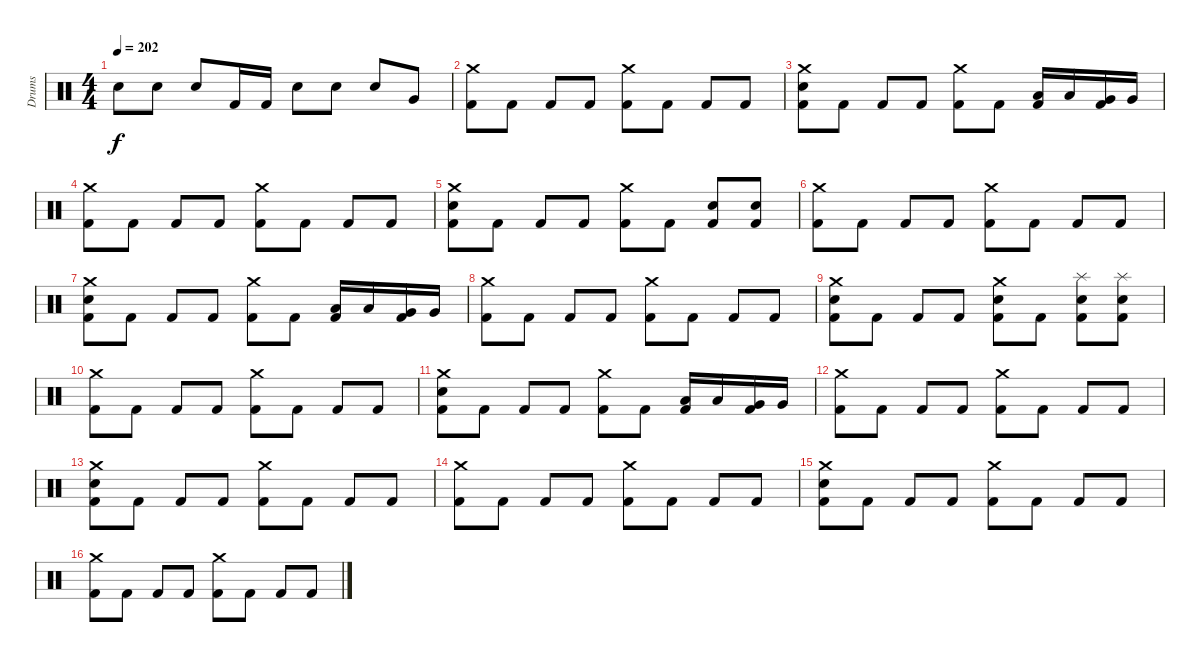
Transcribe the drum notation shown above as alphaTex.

\track ("Drums" "Drums") {instrument percussion}
\staff {score}
\articulation defaults
\ts (4 4)
\tempo 202
\clef neutral
\ks c "Electric Snare (hit)".8{dy f} "Electric Snare (hit)".8 "Electric Snare (hit)".8 "Kick (hit) 2".16 "Kick (hit) 2".16 "Electric Snare (hit)".8 "Electric Snare (hit)".8 "Electric Snare (hit)".8 "Very Low Tom (hit)".8
|
("Crash medium (hit)" "Kick (hit) 2").8 "Kick (hit) 2".8 "Kick (hit) 2".8 "Kick (hit) 2".8 ("Crash medium (hit)" "Kick (hit) 2").8 "Kick (hit) 2".8 "Kick (hit) 2".8 "Kick (hit) 2".8 |
("Crash medium (hit)" "Electric Snare (hit)" "Kick (hit) 2").8 "Kick (hit) 2".8 "Kick (hit) 2".8 "Kick (hit) 2".8 ("Crash medium (hit)" "Kick (hit) 2").8 "Kick (hit) 2".8 ("Low Tom (hit)" "Kick (hit) 2").16 "Low Tom (hit)".16 ("Very Low Tom (hit)" "Kick (hit) 2").16 "Very Low Tom (hit)".16 |
("Crash medium (hit)" "Kick (hit) 2").8 "Kick (hit) 2".8 "Kick (hit) 2".8 "Kick (hit) 2".8 ("Crash medium (hit)" "Kick (hit) 2").8 "Kick (hit) 2".8 "Kick (hit) 2".8 "Kick (hit) 2".8 |
("Crash medium (hit)" "Electric Snare (hit)" "Kick (hit) 2").8 "Kick (hit) 2".8 "Kick (hit) 2".8 "Kick (hit) 2".8 ("Crash medium (hit)" "Kick (hit) 2").8 "Kick (hit) 2".8 ("Electric Snare (hit)" "Kick (hit) 2").8 ("Electric Snare (hit)" "Kick (hit) 2").8 |
("Crash medium (hit)" "Kick (hit) 2").8 "Kick (hit) 2".8 "Kick (hit) 2".8 "Kick (hit) 2".8 ("Crash medium (hit)" "Kick (hit) 2").8 "Kick (hit) 2".8 "Kick (hit) 2".8 "Kick (hit) 2".8 |
("Crash medium (hit)" "Electric Snare (hit)" "Kick (hit) 2").8 "Kick (hit) 2".8 "Kick (hit) 2".8 "Kick (hit) 2".8 ("Crash medium (hit)" "Kick (hit) 2").8 "Kick (hit) 2".8 ("Low Tom (hit)" "Kick (hit) 2").16 "Low Tom (hit)".16 ("Very Low Tom (hit)" "Kick (hit) 2").16 "Very Low Tom (hit)".16 |
("Crash medium (hit)" "Kick (hit) 2").8 "Kick (hit) 2".8 "Kick (hit) 2".8 "Kick (hit) 2".8 ("Crash medium (hit)" "Kick (hit) 2").8 "Kick (hit) 2".8 "Kick (hit) 2".8 "Kick (hit) 2".8 |
("Crash medium (hit)" "Electric Snare (hit)" "Kick (hit) 2").8 "Kick (hit) 2".8 "Kick (hit) 2".8 "Kick (hit) 2".8 ("Crash medium (hit)" "Electric Snare (hit)" "Kick (hit) 2").8 "Kick (hit) 2".8 ("Splash (hit)" "Electric Snare (hit)" "Kick (hit) 2").8 ("Splash (hit)" "Electric Snare (hit)" "Kick (hit) 2").8 |
("Crash medium (hit)" "Kick (hit) 2").8 "Kick (hit) 2".8 "Kick (hit) 2".8 "Kick (hit) 2".8 ("Crash medium (hit)" "Kick (hit) 2").8 "Kick (hit) 2".8 "Kick (hit) 2".8 "Kick (hit) 2".8 |
("Crash medium (hit)" "Electric Snare (hit)" "Kick (hit) 2").8 "Kick (hit) 2".8 "Kick (hit) 2".8 "Kick (hit) 2".8 ("Crash medium (hit)" "Kick (hit) 2").8 "Kick (hit) 2".8 ("Low Tom (hit)" "Kick (hit) 2").16 "Low Tom (hit)".16 ("Very Low Tom (hit)" "Kick (hit) 2").16 "Very Low Tom (hit)".16 |
("Crash medium (hit)" "Kick (hit) 2").8 "Kick (hit) 2".8 "Kick (hit) 2".8 "Kick (hit) 2".8 ("Crash medium (hit)" "Kick (hit) 2").8 "Kick (hit) 2".8 "Kick (hit) 2".8 "Kick (hit) 2".8 |
("Crash medium (hit)" "Electric Snare (hit)" "Kick (hit) 2").8 "Kick (hit) 2".8 "Kick (hit) 2".8 "Kick (hit) 2".8 ("Crash medium (hit)" "Kick (hit) 2").8 "Kick (hit) 2".8 "Kick (hit) 2".8 "Kick (hit) 2".8 |
("Crash medium (hit)" "Kick (hit) 2").8 "Kick (hit) 2".8 "Kick (hit) 2".8 "Kick (hit) 2".8 ("Crash medium (hit)" "Kick (hit) 2").8 "Kick (hit) 2".8 "Kick (hit) 2".8 "Kick (hit) 2".8 |
("Crash medium (hit)" "Electric Snare (hit)" "Kick (hit) 2").8 "Kick (hit) 2".8 "Kick (hit) 2".8 "Kick (hit) 2".8 ("Crash medium (hit)" "Kick (hit) 2").8 "Kick (hit) 2".8 "Kick (hit) 2".8 "Kick (hit) 2".8 |
("Crash medium (hit)" "Kick (hit) 2").8 "Kick (hit) 2".8 "Kick (hit) 2".8 "Kick (hit) 2".8 ("Crash medium (hit)" "Kick (hit) 2").8 "Kick (hit) 2".8 "Kick (hit) 2".8 "Kick (hit) 2".8
